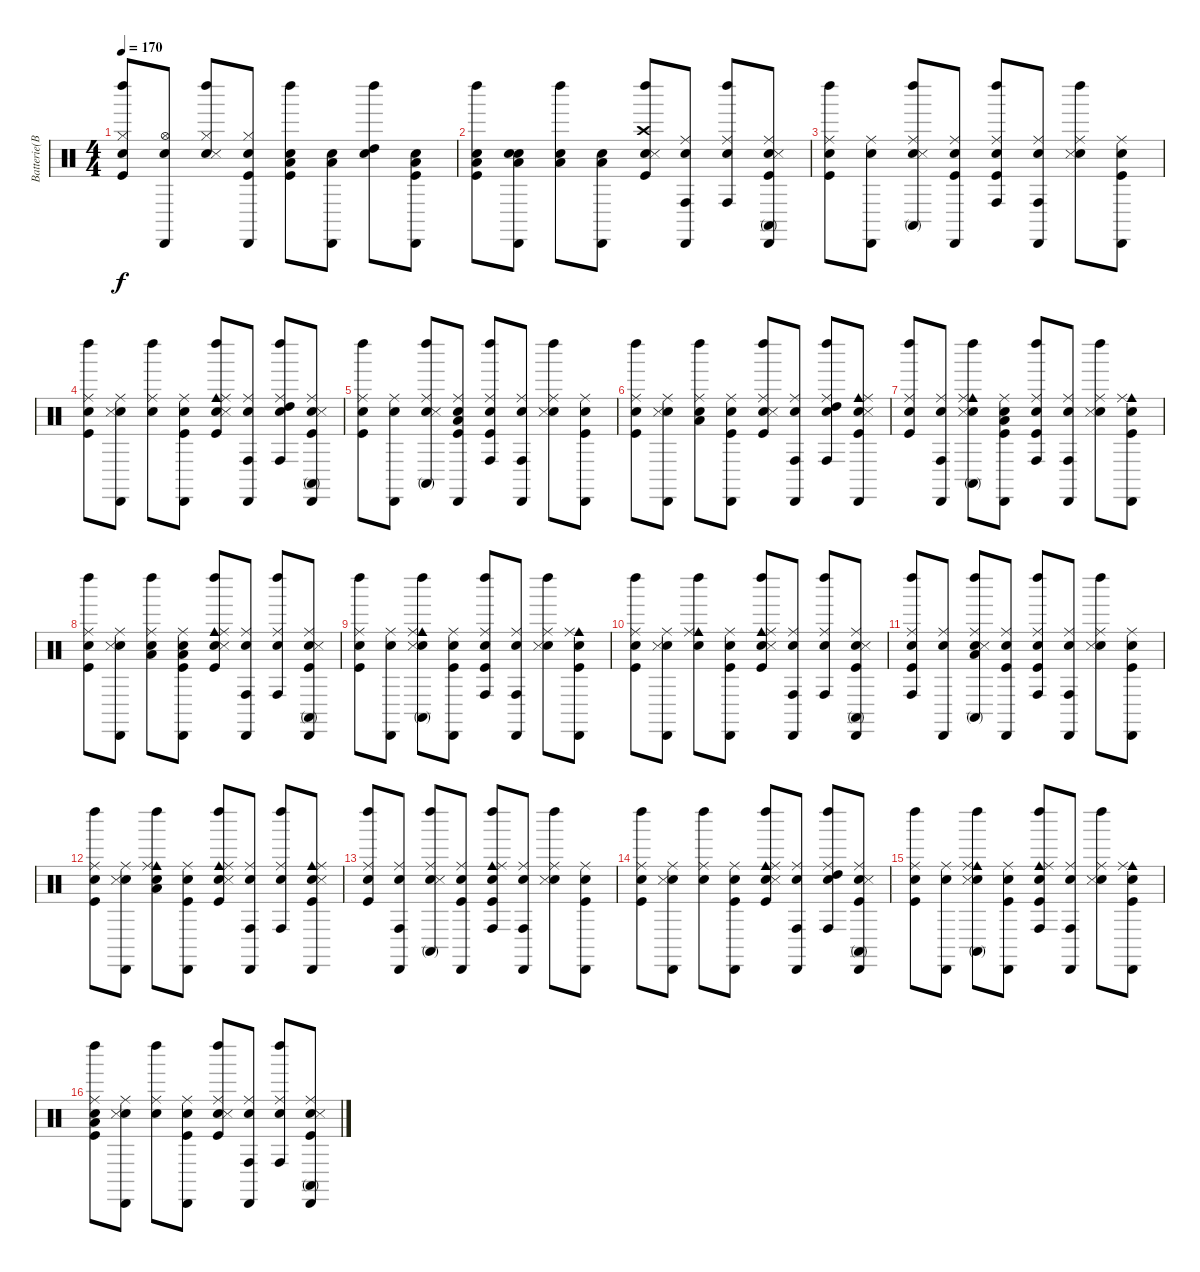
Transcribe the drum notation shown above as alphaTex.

\track ("Batterie(BB)" "Batterie(B") {instrument percussion}
\staff {score}
\articulation defaults
\ts (4 4)
\tempo 170
\clef neutral
\ks c
("Snare (hit)" "Kick (hit)" "Hi-Hat (closed)" "Left Maraca (hit)").8{dy f} ("Snare (hit)" "Hi-Hat (open)" "Cabasa (hit)").8 ("Snare (hit)" "Hi-Hat (closed)" "Snare (side stick) 3" "Left Maraca (hit)").8 ("Snare (hit)" "Kick (hit)" "Hi-Hat (closed)" "Cabasa (hit)").8 ("Snare (hit)" "Kick (hit)" "Low Tom (hit)" "Left Maraca (hit)").8 ("Snare (hit)" "Low Tom (hit)" "Cabasa (hit)").8 ("Snare (hit)" "High Tom (hit)" "Left Maraca (hit)").8 ("Snare (hit)" "Kick (hit)" "Low Tom (hit)" "Cabasa (hit)").8 |
("Snare (hit)" "Kick (hit)" "Low Tom (hit)" "Left Maraca (hit)").8 ("Snare (hit)" "Snare (hit) 2" "Low Tom (hit)" "Cabasa (hit)").8 ("Snare (hit)" "Low Floor Tom (hit)" "Left Maraca (hit)").8 ("Snare (hit)" "Low Floor Tom (hit)" "Cabasa (hit)").8 ("Snare (hit)" "Kick (hit)" "Snare (side stick) 3" "Crash high (hit)" "Left Maraca (hit)").8 ("Snare (hit)" "Ride (middle)" "Conga high (hit)" "Cabasa (hit)").8 ("Snare (hit)" "Ride (middle)" "Conga high (hit)" "Left Maraca (hit)").8 ("Snare (hit)" "Kick (hit)" "Snare (side stick) 3" "Ride (middle)" "Conga high (mute)" "Cabasa (hit)").8 |
("Snare (hit)" "Kick (hit)" "Ride (middle)" "Left Maraca (hit)").8 ("Snare (hit)" "Ride (middle)" "Cabasa (hit)").8 ("Snare (hit)" "Snare (side stick) 3" "Ride (middle)" "Conga high (mute)" "Left Maraca (hit)").8 ("Snare (hit)" "Kick (hit)" "Ride (middle)" "Cabasa (hit)").8 ("Snare (hit)" "Kick (hit)" "Ride (middle)" "Conga high (hit)" "Left Maraca (hit)").8 ("Snare (hit)" "Ride (middle)" "Conga high (hit)" "Cabasa (hit)").8 ("Snare (hit)" "Snare (side stick) 3" "Ride (middle)" "Left Maraca (hit)").8 ("Snare (hit)" "Kick (hit)" "Ride (middle)" "Cabasa (hit)").8 |
("Snare (hit)" "Kick (hit)" "Ride (middle)" "Left Maraca (hit)").8 ("Snare (hit)" "Snare (side stick) 3" "Ride (middle)" "Cabasa (hit)").8 ("Snare (hit)" "Ride (middle)" "Left Maraca (hit)").8 ("Snare (hit)" "Kick (hit)" "Ride (middle)" "Cabasa (hit)").8 ("Snare (hit)" "Kick (hit)" "Snare (side stick) 3" "Cowbell medium (hit)" "Ride (middle)" "Left Maraca (hit)").8 ("Snare (hit)" "Ride (middle)" "Conga high (hit)" "Cabasa (hit)").8 ("Snare (hit)" "Ride (middle)" "High Tom (hit)" "Conga high (hit)" "Left Maraca (hit)").8 ("Snare (hit)" "Kick (hit)" "Snare (side stick) 3" "Ride (middle)" "Conga high (mute)" "Cabasa (hit)").8 |
("Snare (hit)" "Kick (hit)" "Ride (middle)" "Left Maraca (hit)").8 ("Snare (hit)" "Ride (middle)" "Cabasa (hit)").8 ("Snare (hit)" "Snare (side stick) 3" "Ride (middle)" "Conga high (mute)" "Left Maraca (hit)").8 ("Snare (hit)" "Kick (hit)" "Ride (middle)" "Low Tom (hit)" "Cabasa (hit)").8 ("Snare (hit)" "Kick (hit)" "Ride (middle)" "Conga high (hit)" "Left Maraca (hit)").8 ("Snare (hit)" "Ride (middle)" "Conga high (hit)" "Cabasa (hit)").8 ("Snare (hit)" "Snare (side stick) 3" "Ride (middle)" "Left Maraca (hit)").8 ("Snare (hit)" "Kick (hit)" "Ride (middle)" "Cabasa (hit)").8 |
("Snare (hit)" "Kick (hit)" "Ride (middle)" "Left Maraca (hit)").8 ("Snare (hit)" "Snare (side stick) 3" "Ride (middle)" "Cabasa (hit)").8 ("Snare (hit)" "Ride (middle)" "Low Tom (hit)" "Left Maraca (hit)").8 ("Snare (hit)" "Kick (hit)" "Ride (middle)" "Cabasa (hit)").8 ("Snare (hit)" "Kick (hit)" "Snare (side stick) 3" "Ride (middle)" "Left Maraca (hit)").8 ("Snare (hit)" "Ride (middle)" "Conga high (hit)" "Cabasa (hit)").8 ("Snare (hit)" "Ride (middle)" "High Tom (hit)" "Conga high (hit)" "Left Maraca (hit)").8 ("Snare (hit)" "Kick (hit)" "Snare (side stick) 3" "Cowbell medium (hit)" "Ride (middle)" "Cabasa (hit)").8 |
("Snare (hit)" "Kick (hit)" "Ride (middle)" "Left Maraca (hit)").8 ("Snare (hit)" "Ride (middle)" "Conga high (hit)" "Cabasa (hit)").8 ("Snare (hit)" "Snare (side stick) 3" "Cowbell medium (hit)" "Ride (middle)" "Conga high (mute)" "Left Maraca (hit)").8 ("Snare (hit)" "Kick (hit)" "Ride (middle)" "Low Tom (hit)" "Cabasa (hit)").8 ("Snare (hit)" "Kick (hit)" "Ride (middle)" "Conga high (hit)" "Left Maraca (hit)").8 ("Snare (hit)" "Ride (middle)" "Conga high (hit)" "Cabasa (hit)").8 ("Snare (hit)" "Snare (side stick) 3" "Ride (middle)" "Left Maraca (hit)").8 ("Snare (hit)" "Kick (hit)" "Cowbell medium (hit)" "Ride (middle)" "Cabasa (hit)").8 |
("Snare (hit)" "Kick (hit)" "Ride (middle)" "Left Maraca (hit)").8 ("Snare (hit)" "Snare (side stick) 3" "Ride (middle)" "Cabasa (hit)").8 ("Snare (hit)" "Ride (middle)" "Low Tom (hit)" "Left Maraca (hit)").8 ("Snare (hit)" "Kick (hit)" "Ride (middle)" "Low Floor Tom (hit)" "Cabasa (hit)").8 ("Snare (hit)" "Kick (hit)" "Snare (side stick) 3" "Cowbell medium (hit)" "Ride (middle)" "Left Maraca (hit)").8 ("Snare (hit)" "Ride (middle)" "Conga high (hit)" "Cabasa (hit)").8 ("Snare (hit)" "Ride (middle)" "Conga high (hit)" "Left Maraca (hit)").8 ("Snare (hit)" "Kick (hit)" "Snare (side stick) 3" "Ride (middle)" "Conga high (mute)" "Cabasa (hit)").8 |
("Snare (hit)" "Kick (hit)" "Ride (middle)" "Left Maraca (hit)").8 ("Snare (hit)" "Ride (middle)" "Cabasa (hit)").8 ("Snare (hit)" "Snare (side stick) 3" "Cowbell medium (hit)" "Ride (middle)" "Conga high (mute)" "Left Maraca (hit)").8 ("Snare (hit)" "Kick (hit)" "Ride (middle)" "Cabasa (hit)").8 ("Snare (hit)" "Kick (hit)" "Ride (middle)" "Conga high (hit)" "Left Maraca (hit)").8 ("Snare (hit)" "Ride (middle)" "Conga high (hit)" "Cabasa (hit)").8 ("Snare (hit)" "Snare (side stick) 3" "Ride (middle)" "Left Maraca (hit)").8 ("Snare (hit)" "Kick (hit)" "Cowbell medium (hit)" "Ride (middle)" "Cabasa (hit)").8 |
("Snare (hit)" "Kick (hit)" "Ride (middle)" "Left Maraca (hit)").8 ("Snare (hit)" "Snare (side stick) 3" "Ride (middle)" "Cabasa (hit)").8 ("Snare (hit)" "Cowbell medium (hit)" "Ride (middle)" "Left Maraca (hit)").8 ("Snare (hit)" "Kick (hit)" "Ride (middle)" "Cabasa (hit)").8 ("Snare (hit)" "Kick (hit)" "Snare (side stick) 3" "Cowbell medium (hit)" "Ride (middle)" "Left Maraca (hit)").8 ("Snare (hit)" "Ride (middle)" "Conga high (hit)" "Cabasa (hit)").8 ("Snare (hit)" "Ride (middle)" "Conga high (hit)" "Left Maraca (hit)").8 ("Snare (hit)" "Kick (hit)" "Snare (side stick) 3" "Ride (middle)" "Conga high (mute)" "Cabasa (hit)").8 |
("Snare (hit)" "Kick (hit)" "Ride (middle)" "Conga high (hit)" "Left Maraca (hit)").8 ("Snare (hit)" "Ride (middle)" "Cabasa (hit)").8 ("Snare (hit)" "Snare (side stick) 3" "Ride (middle)" "Low Tom (hit)" "Conga high (mute)" "Left Maraca (hit)").8 ("Snare (hit)" "Kick (hit)" "Ride (middle)" "Cabasa (hit)").8 ("Snare (hit)" "Kick (hit)" "Ride (middle)" "Conga high (hit)" "Left Maraca (hit)").8 ("Snare (hit)" "Ride (middle)" "Conga high (hit)" "Cabasa (hit)").8 ("Snare (hit)" "Snare (side stick) 3" "Ride (middle)" "Left Maraca (hit)").8 ("Snare (hit)" "Kick (hit)" "Ride (middle)" "Cabasa (hit)").8 |
("Snare (hit)" "Kick (hit)" "Ride (middle)" "Left Maraca (hit)").8 ("Snare (hit)" "Snare (side stick) 3" "Ride (middle)" "Cabasa (hit)").8 ("Snare (hit)" "Cowbell medium (hit)" "Ride (middle)" "Low Tom (hit)" "Left Maraca (hit)").8 ("Snare (hit)" "Kick (hit)" "Ride (middle)" "Cabasa (hit)").8 ("Snare (hit)" "Kick (hit)" "Snare (side stick) 3" "Cowbell medium (hit)" "Ride (middle)" "Left Maraca (hit)").8 ("Snare (hit)" "Ride (middle)" "Conga high (hit)" "Cabasa (hit)").8 ("Snare (hit)" "Ride (middle)" "Conga high (hit)" "Left Maraca (hit)").8 ("Snare (hit)" "Kick (hit)" "Snare (side stick) 3" "Cowbell medium (hit)" "Ride (middle)" "Cabasa (hit)").8 |
("Snare (hit)" "Kick (hit)" "Ride (middle)" "Left Maraca (hit)").8 ("Snare (hit)" "Ride (middle)" "Conga high (hit)" "Cabasa (hit)").8 ("Snare (hit)" "Snare (side stick) 3" "Ride (middle)" "Conga high (mute)" "Left Maraca (hit)").8 ("Snare (hit)" "Kick (hit)" "Ride (middle)" "Cabasa (hit)").8 ("Snare (hit)" "Kick (hit)" "Cowbell medium (hit)" "Ride (middle)" "Conga high (hit)" "Left Maraca (hit)").8 ("Snare (hit)" "Ride (middle)" "Conga high (hit)" "Cabasa (hit)").8 ("Snare (hit)" "Snare (side stick) 3" "Ride (middle)" "Left Maraca (hit)").8 ("Snare (hit)" "Kick (hit)" "Ride (middle)" "Cabasa (hit)").8 |
("Snare (hit)" "Kick (hit)" "Ride (middle)" "Left Maraca (hit)").8 ("Snare (hit)" "Snare (side stick) 3" "Ride (middle)" "Cabasa (hit)").8 ("Snare (hit)" "Ride (middle)" "Left Maraca (hit)").8 ("Snare (hit)" "Kick (hit)" "Ride (middle)" "Cabasa (hit)").8 ("Snare (hit)" "Kick (hit)" "Snare (side stick) 3" "Cowbell medium (hit)" "Ride (middle)" "Left Maraca (hit)").8 ("Snare (hit)" "Ride (middle)" "Conga high (hit)" "Cabasa (hit)").8 ("Snare (hit)" "Ride (middle)" "High Tom (hit)" "Conga high (hit)" "Left Maraca (hit)").8 ("Snare (hit)" "Kick (hit)" "Snare (side stick) 3" "Ride (middle)" "Conga high (mute)" "Cabasa (hit)").8 |
("Snare (hit)" "Kick (hit)" "Ride (middle)" "Left Maraca (hit)").8 ("Snare (hit)" "Ride (middle)" "Cabasa (hit)").8 ("Snare (hit)" "Snare (side stick) 3" "Cowbell medium (hit)" "Ride (middle)" "Conga high (mute)" "Left Maraca (hit)").8 ("Snare (hit)" "Kick (hit)" "Ride (middle)" "Cabasa (hit)").8 ("Snare (hit)" "Kick (hit)" "Cowbell medium (hit)" "Ride (middle)" "Conga high (hit)" "Left Maraca (hit)").8 ("Snare (hit)" "Ride (middle)" "Conga high (hit)" "Cabasa (hit)").8 ("Snare (hit)" "Snare (side stick) 3" "Ride (middle)" "Left Maraca (hit)").8 ("Snare (hit)" "Kick (hit)" "Cowbell medium (hit)" "Ride (middle)" "Cabasa (hit)").8 |
("Snare (hit)" "Kick (hit)" "Ride (middle)" "Low Floor Tom (hit)" "Left Maraca (hit)").8 ("Snare (hit)" "Snare (side stick) 3" "Ride (middle)" "Cabasa (hit)").8 ("Snare (hit)" "Ride (middle)" "Left Maraca (hit)").8 ("Snare (hit)" "Kick (hit)" "Ride (middle)" "Cabasa (hit)").8 ("Snare (hit)" "Kick (hit)" "Snare (side stick) 3" "Ride (middle)" "Left Maraca (hit)").8 ("Snare (hit)" "Ride (middle)" "Conga high (hit)" "Cabasa (hit)").8 ("Snare (hit)" "Ride (middle)" "Conga high (hit)" "Left Maraca (hit)").8 ("Snare (hit)" "Kick (hit)" "Snare (side stick) 3" "Ride (middle)" "Conga high (mute)" "Cabasa (hit)").8
